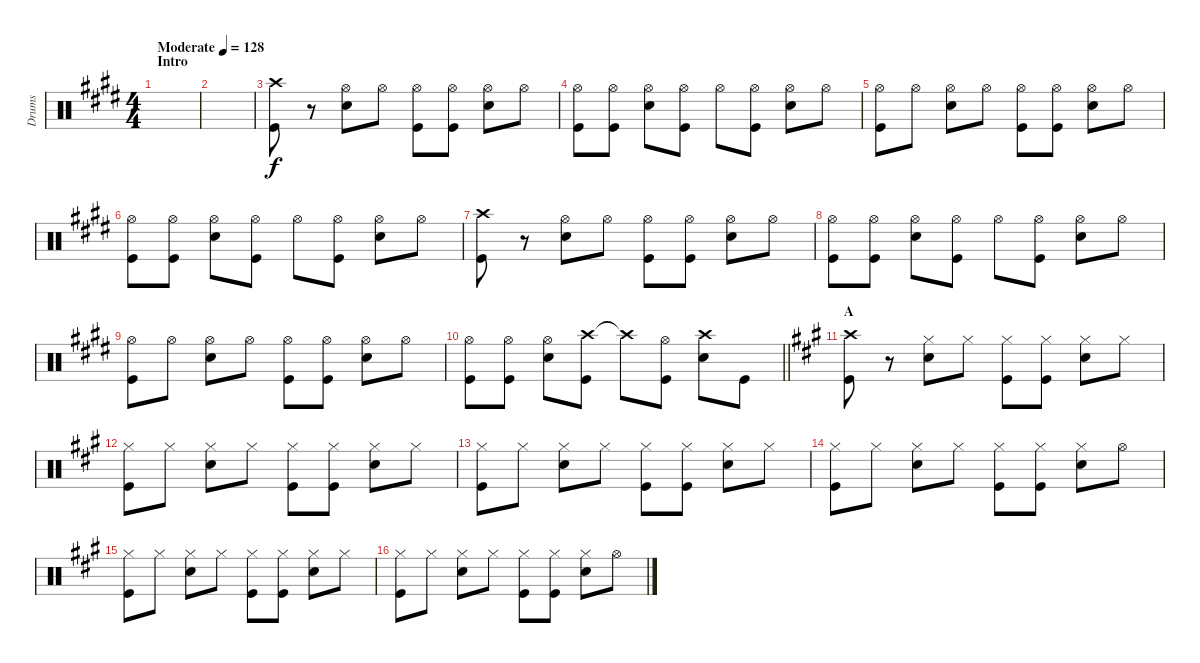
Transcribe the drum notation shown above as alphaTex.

\track ("Drums" "Drums") {instrument percussion}
\staff {score}
\articulation defaults
\ts (4 4)
\section ("" "Intro")
\tempo (128 "Moderate")
\clef neutral
\ks e
|
|
("Crash high (hit)" "Kick (hit)").8 r.8 ("Hi-Hat (open)" "Snare (hit) 2").8 "Hi-Hat (open)".8 ("Hi-Hat (open)" "Kick (hit)").8 ("Hi-Hat (open)" "Kick (hit)").8 ("Hi-Hat (open)" "Snare (hit) 2").8 "Hi-Hat (open)".8 |
("Hi-Hat (open)" "Kick (hit)").8 ("Hi-Hat (open)" "Kick (hit)").8 ("Hi-Hat (open)" "Snare (hit) 2").8 ("Hi-Hat (open)" "Kick (hit)").8 "Hi-Hat (open)".8 ("Hi-Hat (open)" "Kick (hit)").8 ("Hi-Hat (open)" "Snare (hit) 2").8 "Hi-Hat (open)".8 |
("Hi-Hat (open)" "Kick (hit)").8 "Hi-Hat (open)".8 ("Hi-Hat (open)" "Snare (hit) 2").8 "Hi-Hat (open)".8 ("Hi-Hat (open)" "Kick (hit)").8 ("Hi-Hat (open)" "Kick (hit)").8 ("Hi-Hat (open)" "Snare (hit) 2").8 "Hi-Hat (open)".8 |
("Hi-Hat (open)" "Kick (hit)").8 ("Hi-Hat (open)" "Kick (hit)").8 ("Hi-Hat (open)" "Snare (hit) 2").8 ("Hi-Hat (open)" "Kick (hit)").8 "Hi-Hat (open)".8 ("Hi-Hat (open)" "Kick (hit)").8 ("Hi-Hat (open)" "Snare (hit) 2").8 "Hi-Hat (open)".8 |
("Crash high (hit)" "Kick (hit)").8 r.8 ("Hi-Hat (open)" "Snare (hit) 2").8 "Hi-Hat (open)".8 ("Hi-Hat (open)" "Kick (hit)").8 ("Hi-Hat (open)" "Kick (hit)").8 ("Hi-Hat (open)" "Snare (hit) 2").8 "Hi-Hat (open)".8 |
("Hi-Hat (open)" "Kick (hit)").8 ("Hi-Hat (open)" "Kick (hit)").8 ("Hi-Hat (open)" "Snare (hit) 2").8 ("Hi-Hat (open)" "Kick (hit)").8 "Hi-Hat (open)".8 ("Hi-Hat (open)" "Kick (hit)").8 ("Hi-Hat (open)" "Snare (hit) 2").8 "Hi-Hat (open)".8 |
("Hi-Hat (open)" "Kick (hit)").8 "Hi-Hat (open)".8 ("Hi-Hat (open)" "Snare (hit) 2").8 "Hi-Hat (open)".8 ("Hi-Hat (open)" "Kick (hit)").8 ("Hi-Hat (open)" "Kick (hit)").8 ("Hi-Hat (open)" "Snare (hit) 2").8 "Hi-Hat (open)".8 |
\barLineRight lightlight
("Hi-Hat (open)" "Kick (hit)").8 ("Hi-Hat (open)" "Kick (hit)").8 ("Hi-Hat (open)" "Snare (hit) 2").8 ("Crash high (hit)" "Kick (hit)").8 "Crash high (hit)"{t}.8 ("Hi-Hat (open)" "Kick (hit)").8 ("Crash high (hit)" "Snare (hit) 2").8 "Kick (hit)".8 |
\section ("" "A")
\ks a
("Crash high (hit)" "Kick (hit)").8 r.8 ("Hi-Hat (closed)" "Snare (hit) 2").8 "Hi-Hat (closed)".8 ("Hi-Hat (closed)" "Kick (hit)").8 ("Hi-Hat (closed)" "Kick (hit)").8 ("Hi-Hat (closed)" "Snare (hit) 2").8 "Hi-Hat (closed)".8 |
("Hi-Hat (closed)" "Kick (hit)").8 "Hi-Hat (closed)".8 ("Hi-Hat (closed)" "Snare (hit) 2").8 "Hi-Hat (closed)".8 ("Hi-Hat (closed)" "Kick (hit)").8 ("Hi-Hat (closed)" "Kick (hit)").8 ("Hi-Hat (closed)" "Snare (hit) 2").8 "Hi-Hat (closed)".8 |
("Hi-Hat (closed)" "Kick (hit)").8 "Hi-Hat (closed)".8 ("Hi-Hat (closed)" "Snare (hit) 2").8 "Hi-Hat (closed)".8 ("Hi-Hat (closed)" "Kick (hit)").8 ("Hi-Hat (closed)" "Kick (hit)").8 ("Hi-Hat (closed)" "Snare (hit) 2").8 "Hi-Hat (closed)".8 |
("Hi-Hat (closed)" "Kick (hit)").8 "Hi-Hat (closed)".8 ("Hi-Hat (closed)" "Snare (hit) 2").8 "Hi-Hat (closed)".8 ("Hi-Hat (closed)" "Kick (hit)").8 ("Hi-Hat (closed)" "Kick (hit)").8 ("Hi-Hat (closed)" "Snare (hit) 2").8 "Hi-Hat (open)".8 |
("Hi-Hat (closed)" "Kick (hit)").8 "Hi-Hat (closed)".8 ("Hi-Hat (closed)" "Snare (hit) 2").8 "Hi-Hat (closed)".8 ("Hi-Hat (closed)" "Kick (hit)").8 ("Hi-Hat (closed)" "Kick (hit)").8 ("Hi-Hat (closed)" "Snare (hit) 2").8 "Hi-Hat (closed)".8 |
("Hi-Hat (closed)" "Kick (hit)").8 "Hi-Hat (closed)".8 ("Hi-Hat (closed)" "Snare (hit) 2").8 "Hi-Hat (closed)".8 ("Hi-Hat (closed)" "Kick (hit)").8 ("Hi-Hat (closed)" "Kick (hit)").8 ("Hi-Hat (closed)" "Snare (hit) 2").8 "Hi-Hat (open)".8
